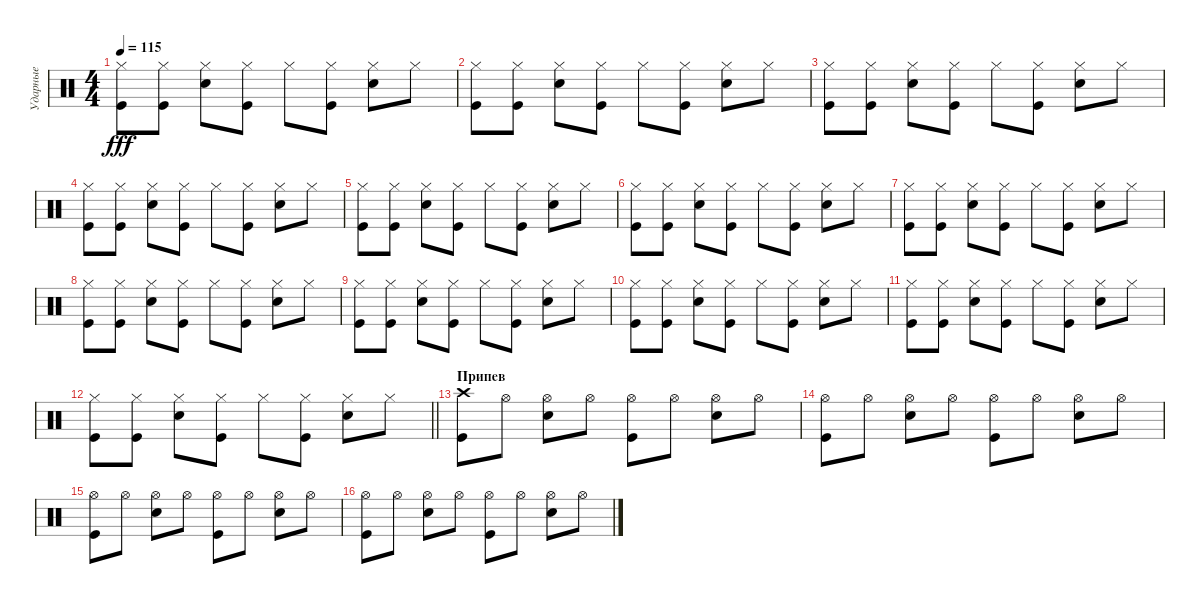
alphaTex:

\track ("Ударные" "Ударные") {instrument percussion}
\staff {score}
\articulation defaults
\ts (4 4)
\tempo 115
\clef neutral
\ks c
("Hi-Hat (closed)" "Kick (hit)").8{dy fff} ("Hi-Hat (closed)" "Kick (hit)").8 ("Hi-Hat (closed)" "Electric Snare (hit)").8 ("Hi-Hat (closed)" "Kick (hit)").8 "Hi-Hat (closed)".8 ("Hi-Hat (closed)" "Kick (hit)").8 ("Hi-Hat (closed)" "Electric Snare (hit)").8 "Hi-Hat (closed)".8 |
("Hi-Hat (closed)" "Kick (hit)").8 ("Hi-Hat (closed)" "Kick (hit)").8 ("Hi-Hat (closed)" "Electric Snare (hit)").8 ("Hi-Hat (closed)" "Kick (hit)").8 "Hi-Hat (closed)".8 ("Hi-Hat (closed)" "Kick (hit)").8 ("Hi-Hat (closed)" "Electric Snare (hit)").8 "Hi-Hat (closed)".8 |
("Hi-Hat (closed)" "Kick (hit)").8 ("Hi-Hat (closed)" "Kick (hit)").8 ("Hi-Hat (closed)" "Electric Snare (hit)").8 ("Hi-Hat (closed)" "Kick (hit)").8 "Hi-Hat (closed)".8 ("Hi-Hat (closed)" "Kick (hit)").8 ("Hi-Hat (closed)" "Electric Snare (hit)").8 "Hi-Hat (closed)".8 |
("Hi-Hat (closed)" "Kick (hit)").8 ("Hi-Hat (closed)" "Kick (hit)").8 ("Hi-Hat (closed)" "Electric Snare (hit)").8 ("Hi-Hat (closed)" "Kick (hit)").8 "Hi-Hat (closed)".8 ("Hi-Hat (closed)" "Kick (hit)").8 ("Hi-Hat (closed)" "Electric Snare (hit)").8 "Hi-Hat (closed)".8 |
("Hi-Hat (closed)" "Kick (hit)").8 ("Hi-Hat (closed)" "Kick (hit)").8 ("Hi-Hat (closed)" "Electric Snare (hit)").8 ("Hi-Hat (closed)" "Kick (hit)").8 "Hi-Hat (closed)".8 ("Hi-Hat (closed)" "Kick (hit)").8 ("Hi-Hat (closed)" "Electric Snare (hit)").8 "Hi-Hat (closed)".8 |
("Hi-Hat (closed)" "Kick (hit)").8 ("Hi-Hat (closed)" "Kick (hit)").8 ("Hi-Hat (closed)" "Electric Snare (hit)").8 ("Hi-Hat (closed)" "Kick (hit)").8 "Hi-Hat (closed)".8 ("Hi-Hat (closed)" "Kick (hit)").8 ("Hi-Hat (closed)" "Electric Snare (hit)").8 "Hi-Hat (closed)".8 |
("Hi-Hat (closed)" "Kick (hit)").8 ("Hi-Hat (closed)" "Kick (hit)").8 ("Hi-Hat (closed)" "Electric Snare (hit)").8 ("Hi-Hat (closed)" "Kick (hit)").8 "Hi-Hat (closed)".8 ("Hi-Hat (closed)" "Kick (hit)").8 ("Hi-Hat (closed)" "Electric Snare (hit)").8 "Hi-Hat (closed)".8 |
("Hi-Hat (closed)" "Kick (hit)").8 ("Hi-Hat (closed)" "Kick (hit)").8 ("Hi-Hat (closed)" "Electric Snare (hit)").8 ("Hi-Hat (closed)" "Kick (hit)").8 "Hi-Hat (closed)".8 ("Hi-Hat (closed)" "Kick (hit)").8 ("Hi-Hat (closed)" "Electric Snare (hit)").8 "Hi-Hat (closed)".8 |
("Hi-Hat (closed)" "Kick (hit)").8 ("Hi-Hat (closed)" "Kick (hit)").8 ("Hi-Hat (closed)" "Electric Snare (hit)").8 ("Hi-Hat (closed)" "Kick (hit)").8 "Hi-Hat (closed)".8 ("Hi-Hat (closed)" "Kick (hit)").8 ("Hi-Hat (closed)" "Electric Snare (hit)").8 "Hi-Hat (closed)".8 |
("Hi-Hat (closed)" "Kick (hit)").8 ("Hi-Hat (closed)" "Kick (hit)").8 ("Hi-Hat (closed)" "Electric Snare (hit)").8 ("Hi-Hat (closed)" "Kick (hit)").8 "Hi-Hat (closed)".8 ("Hi-Hat (closed)" "Kick (hit)").8 ("Hi-Hat (closed)" "Electric Snare (hit)").8 "Hi-Hat (closed)".8 |
("Hi-Hat (closed)" "Kick (hit)").8 ("Hi-Hat (closed)" "Kick (hit)").8 ("Hi-Hat (closed)" "Electric Snare (hit)").8 ("Hi-Hat (closed)" "Kick (hit)").8 "Hi-Hat (closed)".8 ("Hi-Hat (closed)" "Kick (hit)").8 ("Hi-Hat (closed)" "Electric Snare (hit)").8 "Hi-Hat (closed)".8 |
\barLineRight lightlight
("Hi-Hat (closed)" "Kick (hit)").8 ("Hi-Hat (closed)" "Kick (hit)").8 ("Hi-Hat (closed)" "Electric Snare (hit)").8 ("Hi-Hat (closed)" "Kick (hit)").8 "Hi-Hat (closed)".8 ("Hi-Hat (closed)" "Kick (hit)").8 ("Hi-Hat (closed)" "Electric Snare (hit)").8 "Hi-Hat (closed)".8 |
\section ("" "Припев")
("Crash high (hit)" "Kick (hit)").8 "Hi-Hat (open)".8 ("Hi-Hat (open)" "Electric Snare (hit)").8 "Hi-Hat (open)".8 ("Hi-Hat (open)" "Kick (hit)").8 "Hi-Hat (open)".8 ("Hi-Hat (open)" "Electric Snare (hit)").8 "Hi-Hat (open)".8 |
("Hi-Hat (open)" "Kick (hit)").8 "Hi-Hat (open)".8 ("Hi-Hat (open)" "Electric Snare (hit)").8 "Hi-Hat (open)".8 ("Hi-Hat (open)" "Kick (hit)").8 "Hi-Hat (open)".8 ("Hi-Hat (open)" "Electric Snare (hit)").8 "Hi-Hat (open)".8 |
("Hi-Hat (open)" "Kick (hit)").8 "Hi-Hat (open)".8 ("Hi-Hat (open)" "Electric Snare (hit)").8 "Hi-Hat (open)".8 ("Hi-Hat (open)" "Kick (hit)").8 "Hi-Hat (open)".8 ("Hi-Hat (open)" "Electric Snare (hit)").8 "Hi-Hat (open)".8 |
("Hi-Hat (open)" "Kick (hit)").8 "Hi-Hat (open)".8 ("Hi-Hat (open)" "Electric Snare (hit)").8 "Hi-Hat (open)".8 ("Hi-Hat (open)" "Kick (hit)").8 "Hi-Hat (open)".8 ("Hi-Hat (open)" "Electric Snare (hit)").8 "Hi-Hat (open)".8
